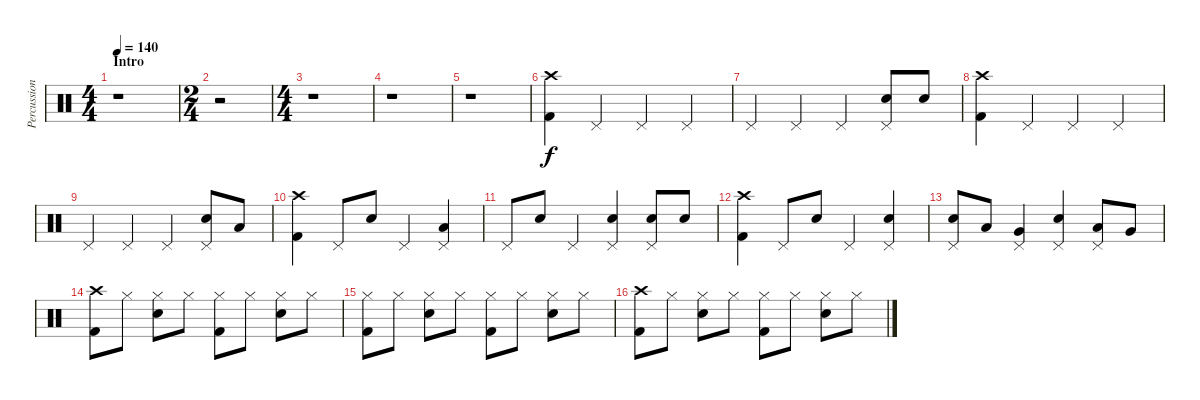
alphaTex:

\track ("Percussion" "Percussion") {instrument percussion}
\staff {score}
\articulation defaults
\ts (4 4)
\section ("" "Intro")
\tempo 140
\clef neutral
\ks c
r.1{dy f} |
\ts (2 4)
r.2 |
\ts (4 4)
r.1 |
r.1 |
r.1 |
("Crash high (hit)" "Kick (hit) 2").4 "Pedal Hi-Hat (hit)".4 "Pedal Hi-Hat (hit)".4 "Pedal Hi-Hat (hit)".4 |
"Pedal Hi-Hat (hit)".4 "Pedal Hi-Hat (hit)".4 "Pedal Hi-Hat (hit)".4 ("Pedal Hi-Hat (hit)" "Snare (hit) 2").8 "Snare (hit) 2".8 |
("Crash high (hit)" "Kick (hit) 2").4 "Pedal Hi-Hat (hit)".4 "Pedal Hi-Hat (hit)".4 "Pedal Hi-Hat (hit)".4 |
"Pedal Hi-Hat (hit)".4 "Pedal Hi-Hat (hit)".4 "Pedal Hi-Hat (hit)".4 ("Pedal Hi-Hat (hit)" "Snare (hit) 2").8 "Low Tom (hit)".8 |
("Crash high (hit)" "Kick (hit) 2").4 "Pedal Hi-Hat (hit)".8 "Snare (hit) 2".8 "Pedal Hi-Hat (hit)".4 ("Low Tom (hit)" "Pedal Hi-Hat (hit)").4 |
"Pedal Hi-Hat (hit)".8 "Snare (hit) 2".8 "Pedal Hi-Hat (hit)".4 ("Pedal Hi-Hat (hit)" "Snare (hit) 2").4 ("Pedal Hi-Hat (hit)" "Snare (hit) 2").8 "Snare (hit) 2".8 |
("Crash high (hit)" "Kick (hit) 2").4 "Pedal Hi-Hat (hit)".8 "Snare (hit) 2".8 "Pedal Hi-Hat (hit)".4 ("Pedal Hi-Hat (hit)" "Snare (hit) 2").4 |
("Pedal Hi-Hat (hit)" "Snare (hit) 2").8 "Low Tom (hit)".8 ("Very Low Tom (hit)" "Pedal Hi-Hat (hit)").4 ("Pedal Hi-Hat (hit)" "Snare (hit) 2").4 ("Low Tom (hit)" "Pedal Hi-Hat (hit)").8 "Very Low Tom (hit)".8 |
("Crash high (hit)" "Kick (hit) 2").8 "Hi-Hat (closed)".8 ("Hi-Hat (closed)" "Snare (hit) 2").8 "Hi-Hat (closed)".8 ("Hi-Hat (closed)" "Kick (hit) 2").8 "Hi-Hat (closed)".8 ("Hi-Hat (closed)" "Snare (hit) 2").8 "Hi-Hat (closed)".8 |
("Hi-Hat (closed)" "Kick (hit) 2").8 "Hi-Hat (closed)".8 ("Hi-Hat (closed)" "Snare (hit) 2").8 "Hi-Hat (closed)".8 ("Hi-Hat (closed)" "Kick (hit) 2").8 "Hi-Hat (closed)".8 ("Hi-Hat (closed)" "Snare (hit) 2").8 "Hi-Hat (closed)".8 |
("Crash high (hit)" "Kick (hit) 2").8 "Hi-Hat (closed)".8 ("Hi-Hat (closed)" "Snare (hit) 2").8 "Hi-Hat (closed)".8 ("Hi-Hat (closed)" "Kick (hit) 2").8 "Hi-Hat (closed)".8 ("Hi-Hat (closed)" "Snare (hit) 2").8 "Hi-Hat (closed)".8
